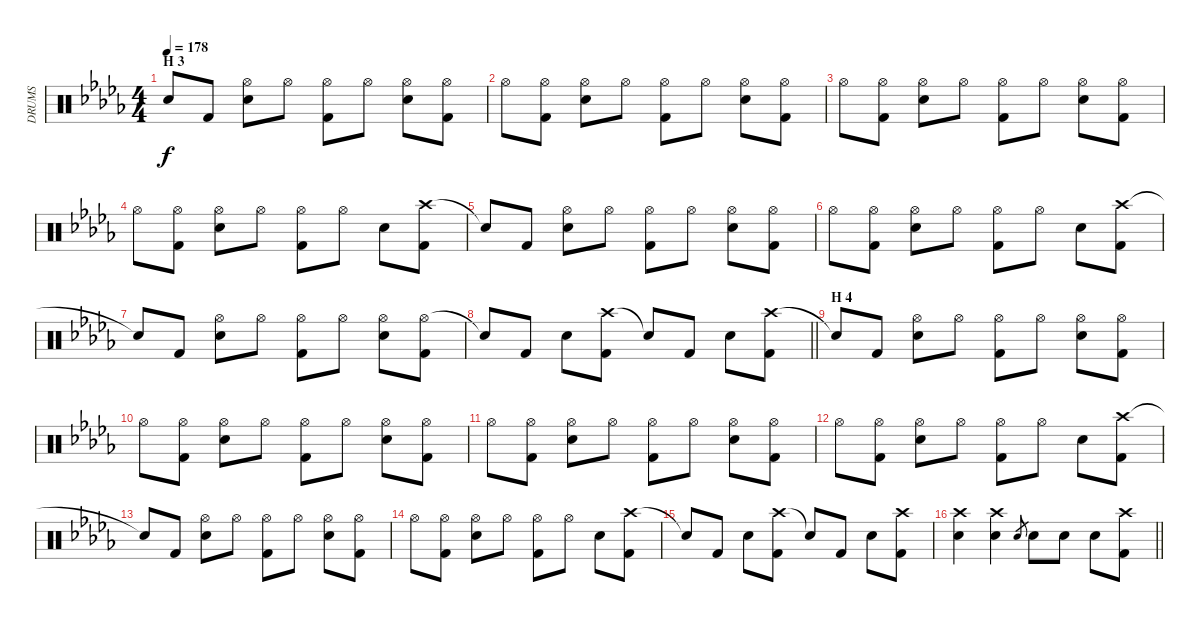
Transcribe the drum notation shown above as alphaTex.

\track ("DRUMS" "DRUMS") {instrument percussion}
\staff {score}
\articulation defaults
\ts (4 4)
\section ("" "H 3")
\tempo 178
\clef neutral
\ks db "Snare (hit)"{t}.8{dy f} "Kick (hit) 2".8
("Hi-Hat (open)" "Snare (hit) 2").8 "Hi-Hat (open)".8 ("Hi-Hat (open)" "Kick (hit) 2").8 "Hi-Hat (open)".8 ("Hi-Hat (open)" "Snare (hit) 2").8 ("Hi-Hat (open)" "Kick (hit) 2").8 |
"Hi-Hat (open)".8 ("Hi-Hat (open)" "Kick (hit) 2").8 ("Hi-Hat (open)" "Snare (hit) 2").8 "Hi-Hat (open)".8 ("Hi-Hat (open)" "Kick (hit) 2").8 "Hi-Hat (open)".8 ("Hi-Hat (open)" "Snare (hit) 2").8 ("Hi-Hat (open)" "Kick (hit) 2").8 |
"Hi-Hat (open)".8 ("Hi-Hat (open)" "Kick (hit) 2").8 ("Hi-Hat (open)" "Snare (hit) 2").8 "Hi-Hat (open)".8 ("Hi-Hat (open)" "Kick (hit) 2").8 "Hi-Hat (open)".8 ("Hi-Hat (open)" "Snare (hit) 2").8 ("Hi-Hat (open)" "Kick (hit) 2").8 |
"Hi-Hat (open)".8 ("Hi-Hat (open)" "Kick (hit) 2").8 ("Hi-Hat (open)" "Snare (hit) 2").8 "Hi-Hat (open)".8 ("Hi-Hat (open)" "Kick (hit) 2").8 "Hi-Hat (open)".8 "Snare (hit) 2".8 ("Crash high (hit)" "Kick (hit) 2").8 |
"Snare (hit)"{t}.8 "Kick (hit) 2".8 ("Hi-Hat (open)" "Snare (hit) 2").8 "Hi-Hat (open)".8 ("Hi-Hat (open)" "Kick (hit) 2").8 "Hi-Hat (open)".8 ("Hi-Hat (open)" "Snare (hit) 2").8 ("Hi-Hat (open)" "Kick (hit) 2").8 |
"Hi-Hat (open)".8 ("Hi-Hat (open)" "Kick (hit) 2").8 ("Hi-Hat (open)" "Snare (hit) 2").8 "Hi-Hat (open)".8 ("Hi-Hat (open)" "Kick (hit) 2").8 "Hi-Hat (open)".8 "Snare (hit) 2".8 ("Crash high (hit)" "Kick (hit) 2").8 |
"Snare (hit)"{t}.8 "Kick (hit) 2".8 ("Hi-Hat (open)" "Snare (hit) 2").8 "Hi-Hat (open)".8 ("Hi-Hat (open)" "Kick (hit) 2").8 "Hi-Hat (open)".8 ("Hi-Hat (open)" "Snare (hit) 2").8 ("Hi-Hat (open)" "Kick (hit) 2").8 |
\barLineRight lightlight "Snare (hit)"{t}.8 "Kick (hit) 2".8 "Snare (hit) 2".8
("Crash high (hit)" "Kick (hit) 2").8 "Snare (hit)"{t}.8 "Kick (hit) 2".8 "Snare (hit) 2".8 ("Crash high (hit)" "Kick (hit) 2").8 |
\section ("" "H 4")
"Snare (hit)"{t}.8 "Kick (hit) 2".8 ("Hi-Hat (open)" "Snare (hit) 2").8 "Hi-Hat (open)".8 ("Hi-Hat (open)" "Kick (hit) 2").8 "Hi-Hat (open)".8 ("Hi-Hat (open)" "Snare (hit) 2").8 ("Hi-Hat (open)" "Kick (hit) 2").8 |
"Hi-Hat (open)".8 ("Hi-Hat (open)" "Kick (hit) 2").8 ("Hi-Hat (open)" "Snare (hit) 2").8 "Hi-Hat (open)".8 ("Hi-Hat (open)" "Kick (hit) 2").8 "Hi-Hat (open)".8 ("Hi-Hat (open)" "Snare (hit) 2").8 ("Hi-Hat (open)" "Kick (hit) 2").8 |
"Hi-Hat (open)".8 ("Hi-Hat (open)" "Kick (hit) 2").8 ("Hi-Hat (open)" "Snare (hit) 2").8 "Hi-Hat (open)".8 ("Hi-Hat (open)" "Kick (hit) 2").8 "Hi-Hat (open)".8 ("Hi-Hat (open)" "Snare (hit) 2").8 ("Hi-Hat (open)" "Kick (hit) 2").8 |
"Hi-Hat (open)".8 ("Hi-Hat (open)" "Kick (hit) 2").8 ("Hi-Hat (open)" "Snare (hit) 2").8 "Hi-Hat (open)".8 ("Hi-Hat (open)" "Kick (hit) 2").8 "Hi-Hat (open)".8 "Snare (hit) 2".8 ("Crash high (hit)" "Kick (hit) 2").8 |
"Snare (hit)"{t}.8 "Kick (hit) 2".8 ("Hi-Hat (open)" "Snare (hit) 2").8 "Hi-Hat (open)".8 ("Hi-Hat (open)" "Kick (hit) 2").8 "Hi-Hat (open)".8 ("Hi-Hat (open)" "Snare (hit) 2").8 ("Hi-Hat (open)" "Kick (hit) 2").8 |
"Hi-Hat (open)".8 ("Hi-Hat (open)" "Kick (hit) 2").8 ("Hi-Hat (open)" "Snare (hit) 2").8 "Hi-Hat (open)".8 ("Hi-Hat (open)" "Kick (hit) 2").8 "Hi-Hat (open)".8 "Snare (hit) 2".8 ("Crash high (hit)" "Kick (hit) 2").8 |
"Snare (hit)"{t}.8 "Kick (hit) 2".8 "Snare (hit) 2".8 ("Crash high (hit)" "Kick (hit) 2").8 "Snare (hit)"{t}.8 "Kick (hit) 2".8 "Snare (hit) 2".8 ("Crash high (hit)" "Kick (hit) 2").8 |
\barLineRight lightlight
("Crash high (hit)" "Snare (hit) 2").4 ("Crash high (hit)" "Snare (hit) 2").4 "Snare (hit) 2".8{gr} "Snare (hit) 2".8 "Snare (hit) 2".8 "Snare (hit) 2".8 ("Crash high (hit)" "Kick (hit) 2").8
